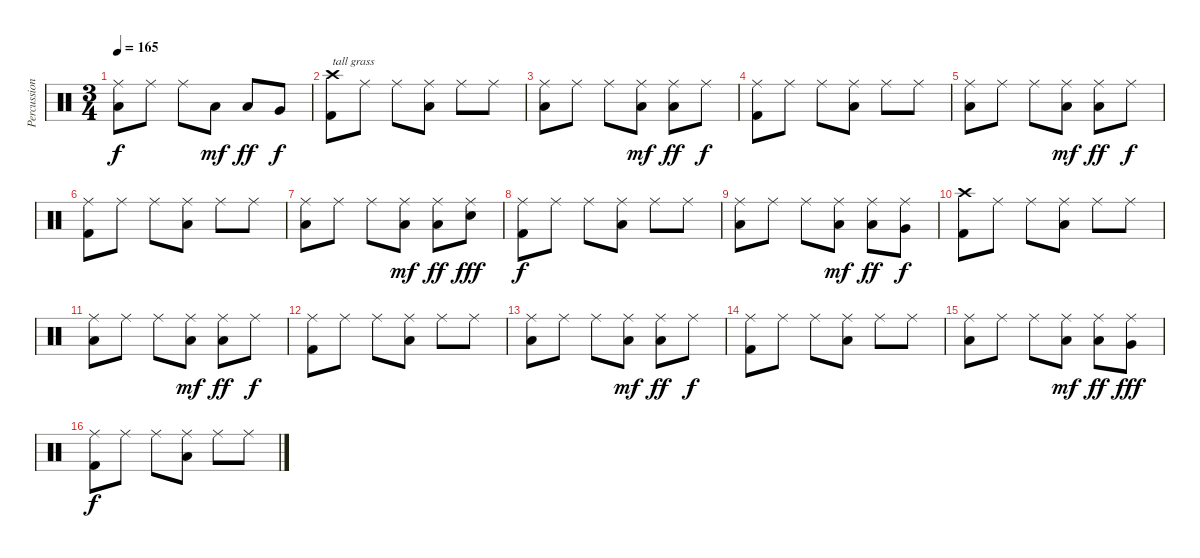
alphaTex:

\track ("Percussion" "Percussion") {instrument percussion}
\staff {score}
\articulation defaults
\ts (3 4)
\tempo 165
\clef neutral
\ks c
("Ride (middle)" "Low Tom (hit)").8{dy f} "Ride (middle)".8 "Ride (middle)".8 "Low Tom (hit)".8{dy mf} "Low Tom (hit)".8{dy ff} "Very Low Tom (hit)".8{dy f} |
("Crash high (hit)" "Kick (hit) 2").8{txt "tall grass"} "Ride (middle)".8 "Ride (middle)".8 ("Ride (middle)" "Low Tom (hit)").8 "Ride (middle)".8 "Ride (middle)".8 |
("Ride (middle)" "Low Tom (hit)").8 "Ride (middle)".8 "Ride (middle)".8 ("Ride (middle)" "Low Tom (hit)").8{dy mf} ("Ride (middle)" "Low Tom (hit)").8{dy ff} "Ride (middle)".8{dy f} |
("Ride (middle)" "Kick (hit) 2").8 "Ride (middle)".8 "Ride (middle)".8 ("Ride (middle)" "Low Tom (hit)").8 "Ride (middle)".8 "Ride (middle)".8 |
("Ride (middle)" "Low Tom (hit)").8 "Ride (middle)".8 "Ride (middle)".8 ("Ride (middle)" "Low Tom (hit)").8{dy mf} ("Ride (middle)" "Low Tom (hit)").8{dy ff} "Ride (middle)".8{dy f} |
("Ride (middle)" "Kick (hit) 2").8 "Ride (middle)".8 "Ride (middle)".8 ("Ride (middle)" "Low Tom (hit)").8 "Ride (middle)".8 "Ride (middle)".8 |
("Ride (middle)" "Low Tom (hit)").8 "Ride (middle)".8 "Ride (middle)".8 ("Ride (middle)" "Low Tom (hit)").8{dy mf} ("Ride (middle)" "Low Tom (hit)").8{dy ff} ("Ride (middle)" "Electric Snare (hit)").8{dy fff} |
("Ride (middle)" "Kick (hit) 2").8{dy f} "Ride (middle)".8 "Ride (middle)".8 ("Ride (middle)" "Low Tom (hit)").8 "Ride (middle)".8 "Ride (middle)".8 |
("Ride (middle)" "Low Tom (hit)").8 "Ride (middle)".8 "Ride (middle)".8 ("Ride (middle)" "Low Tom (hit)").8{dy mf} ("Ride (middle)" "Low Tom (hit)").8{dy ff} ("Ride (middle)" "Very Low Tom (hit)").8{dy f} |
("Crash high (hit)" "Kick (hit) 2").8 "Ride (middle)".8 "Ride (middle)".8 ("Ride (middle)" "Low Tom (hit)").8 "Ride (middle)".8 "Ride (middle)".8 |
("Ride (middle)" "Low Tom (hit)").8 "Ride (middle)".8 "Ride (middle)".8 ("Ride (middle)" "Low Tom (hit)").8{dy mf} ("Ride (middle)" "Low Tom (hit)").8{dy ff} "Ride (middle)".8{dy f} |
("Ride (middle)" "Kick (hit) 2").8 "Ride (middle)".8 "Ride (middle)".8 ("Ride (middle)" "Low Tom (hit)").8 "Ride (middle)".8 "Ride (middle)".8 |
("Ride (middle)" "Low Tom (hit)").8 "Ride (middle)".8 "Ride (middle)".8 ("Ride (middle)" "Low Tom (hit)").8{dy mf} ("Ride (middle)" "Low Tom (hit)").8{dy ff} "Ride (middle)".8{dy f} |
("Ride (middle)" "Kick (hit) 2").8 "Ride (middle)".8 "Ride (middle)".8 ("Ride (middle)" "Low Tom (hit)").8 "Ride (middle)".8 "Ride (middle)".8 |
("Ride (middle)" "Low Tom (hit)").8 "Ride (middle)".8 "Ride (middle)".8 ("Ride (middle)" "Low Tom (hit)").8{dy mf} ("Ride (middle)" "Low Tom (hit)").8{dy ff} ("Ride (middle)" "Very Low Tom (hit)").8{dy fff} |
("Ride (middle)" "Kick (hit) 2").8{dy f} "Ride (middle)".8 "Ride (middle)".8 ("Ride (middle)" "Low Tom (hit)").8 "Ride (middle)".8 "Ride (middle)".8
